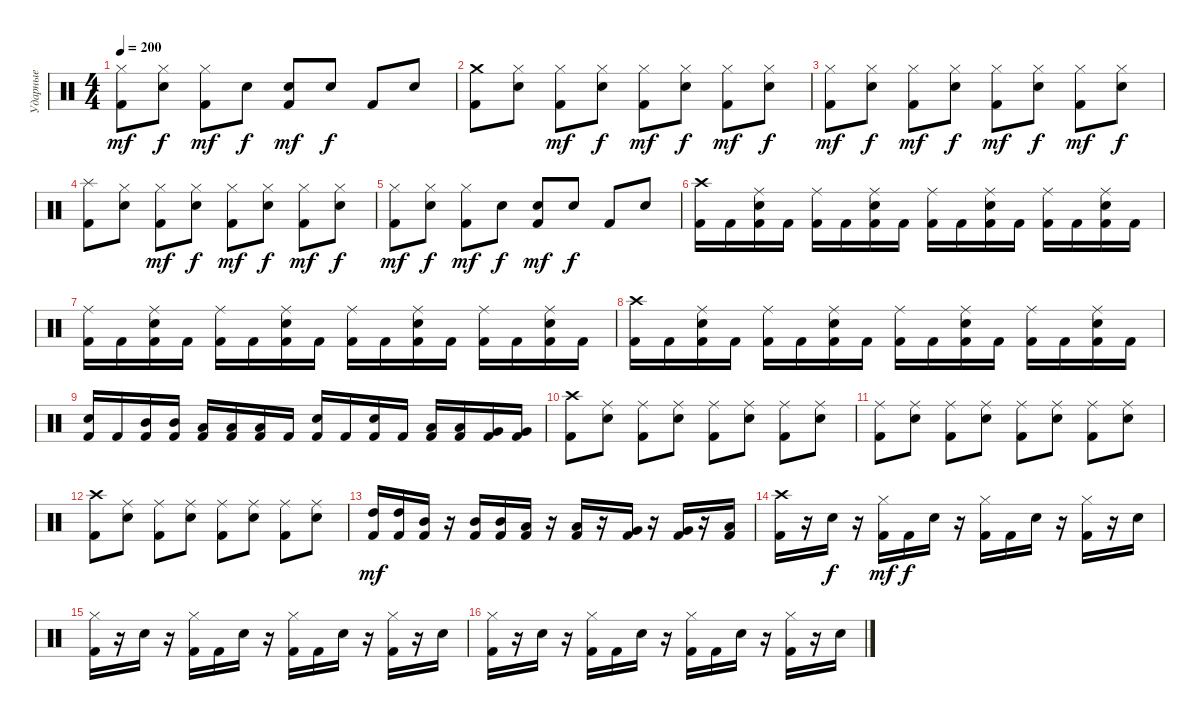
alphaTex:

\track ("Ударные" "Ударные") {instrument percussion}
\staff {score}
\articulation defaults
\ts (4 4)
\tempo 200
\clef neutral
\ks c
("Hi-Hat (closed)" "Kick (hit) 2").8{dy mf} ("Hi-Hat (closed)" "Snare (hit) 2").8{dy f} ("Hi-Hat (closed)" "Kick (hit) 2").8{dy mf} "Snare (hit) 2".8{dy f} ("Snare (hit) 2" "Kick (hit) 2").8{dy mf} "Snare (hit) 2".8{dy f} "Kick (hit) 2".8 "Snare (hit) 2".8 |
("Crash medium (hit)" "Kick (hit) 2").8 ("Hi-Hat (closed)" "Snare (hit) 2").8 ("Hi-Hat (closed)" "Kick (hit) 2").8{dy mf} ("Hi-Hat (closed)" "Snare (hit) 2").8{dy f} ("Hi-Hat (closed)" "Kick (hit) 2").8{dy mf} ("Hi-Hat (closed)" "Snare (hit) 2").8{dy f} ("Hi-Hat (closed)" "Kick (hit) 2").8{dy mf} ("Hi-Hat (closed)" "Snare (hit) 2").8{dy f} |
("Hi-Hat (closed)" "Kick (hit) 2").8{dy mf} ("Hi-Hat (closed)" "Snare (hit) 2").8{dy f} ("Hi-Hat (closed)" "Kick (hit) 2").8{dy mf} ("Hi-Hat (closed)" "Snare (hit) 2").8{dy f} ("Hi-Hat (closed)" "Kick (hit) 2").8{dy mf} ("Hi-Hat (closed)" "Snare (hit) 2").8{dy f} ("Hi-Hat (closed)" "Kick (hit) 2").8{dy mf} ("Hi-Hat (closed)" "Snare (hit) 2").8{dy f} |
("Splash (hit)" "Kick (hit) 2").8 ("Hi-Hat (closed)" "Snare (hit) 2").8 ("Hi-Hat (closed)" "Kick (hit) 2").8{dy mf} ("Hi-Hat (closed)" "Snare (hit) 2").8{dy f} ("Hi-Hat (closed)" "Kick (hit) 2").8{dy mf} ("Hi-Hat (closed)" "Snare (hit) 2").8{dy f} ("Hi-Hat (closed)" "Kick (hit) 2").8{dy mf} ("Hi-Hat (closed)" "Snare (hit) 2").8{dy f} |
("Hi-Hat (closed)" "Kick (hit) 2").8{dy mf} ("Hi-Hat (closed)" "Snare (hit) 2").8{dy f} ("Hi-Hat (closed)" "Kick (hit) 2").8{dy mf} "Snare (hit) 2".8{dy f} ("Snare (hit) 2" "Kick (hit) 2").8{dy mf} "Snare (hit) 2".8{dy f} "Kick (hit) 2".8 "Snare (hit) 2".8 |
("Crash high (hit)" "Kick (hit) 2").16 "Kick (hit) 2".16 ("Ride (middle)" "Snare (hit) 2" "Kick (hit) 2").16 "Kick (hit) 2".16 ("Ride (middle)" "Kick (hit) 2").16 "Kick (hit) 2".16 ("Ride (middle)" "Snare (hit) 2" "Kick (hit) 2").16 "Kick (hit) 2".16 ("Ride (middle)" "Kick (hit) 2").16 "Kick (hit) 2".16 ("Ride (middle)" "Snare (hit) 2" "Kick (hit) 2").16 "Kick (hit) 2".16 ("Ride (middle)" "Kick (hit) 2").16 "Kick (hit) 2".16 ("Ride (middle)" "Snare (hit) 2" "Kick (hit) 2").16 "Kick (hit) 2".16 |
("Ride (middle)" "Kick (hit) 2").16 "Kick (hit) 2".16 ("Ride (middle)" "Snare (hit) 2" "Kick (hit) 2").16 "Kick (hit) 2".16 ("Ride (middle)" "Kick (hit) 2").16 "Kick (hit) 2".16 ("Ride (middle)" "Snare (hit) 2" "Kick (hit) 2").16 "Kick (hit) 2".16 ("Ride (middle)" "Kick (hit) 2").16 "Kick (hit) 2".16 ("Ride (middle)" "Snare (hit) 2" "Kick (hit) 2").16 "Kick (hit) 2".16 ("Ride (middle)" "Kick (hit) 2").16 "Kick (hit) 2".16 ("Ride (middle)" "Snare (hit) 2" "Kick (hit) 2").16 "Kick (hit) 2".16 |
("Crash high (hit)" "Kick (hit) 2").16 "Kick (hit) 2".16 ("Ride (middle)" "Snare (hit) 2" "Kick (hit) 2").16 "Kick (hit) 2".16 ("Ride (middle)" "Kick (hit) 2").16 "Kick (hit) 2".16 ("Ride (middle)" "Snare (hit) 2" "Kick (hit) 2").16 "Kick (hit) 2".16 ("Ride (middle)" "Kick (hit) 2").16 "Kick (hit) 2".16 ("Ride (middle)" "Snare (hit) 2" "Kick (hit) 2").16 "Kick (hit) 2".16 ("Ride (middle)" "Kick (hit) 2").16 "Kick (hit) 2".16 ("Ride (middle)" "Snare (hit) 2" "Kick (hit) 2").16 "Kick (hit) 2".16 |
("Snare (hit) 2" "Kick (hit) 2").16 "Kick (hit) 2".16 ("Mid Tom (hit)" "Kick (hit) 2").16 ("Mid Tom (hit)" "Kick (hit) 2").16 ("Low Tom (hit)" "Kick (hit) 2").16 ("Low Tom (hit)" "Kick (hit) 2").16 ("Low Tom (hit)" "Kick (hit) 2").16 "Kick (hit) 2".16 ("Snare (hit) 2" "Kick (hit) 2").16 "Kick (hit) 2".16 ("Snare (hit) 2" "Kick (hit) 2").16 "Kick (hit) 2".16 ("Low Tom (hit)" "Kick (hit) 2").16 ("Low Tom (hit)" "Kick (hit) 2").16 ("Very Low Tom (hit)" "Kick (hit) 2").16 ("Very Low Tom (hit)" "Kick (hit) 2").16 |
("Crash high (hit)" "Kick (hit) 2").8 ("Ride (middle)" "Snare (hit) 2").8 ("Ride (middle)" "Kick (hit) 2").8 ("Ride (middle)" "Snare (hit) 2").8 ("Ride (middle)" "Kick (hit) 2").8 ("Ride (middle)" "Snare (hit) 2").8 ("Ride (middle)" "Kick (hit) 2").8 ("Ride (middle)" "Snare (hit) 2").8 |
("Ride (middle)" "Kick (hit) 2").8 ("Ride (middle)" "Snare (hit) 2").8 ("Ride (middle)" "Kick (hit) 2").8 ("Ride (middle)" "Snare (hit) 2").8 ("Ride (middle)" "Kick (hit) 2").8 ("Ride (middle)" "Snare (hit) 2").8 ("Ride (middle)" "Kick (hit) 2").8 ("Ride (middle)" "Snare (hit) 2").8 |
("Crash high (hit)" "Kick (hit) 2").8 ("Ride (middle)" "Snare (hit) 2").8 ("Ride (middle)" "Kick (hit) 2").8 ("Ride (middle)" "Snare (hit) 2").8 ("Ride (middle)" "Kick (hit) 2").8 ("Ride (middle)" "Snare (hit) 2").8 ("Ride (middle)" "Kick (hit) 2").8 ("Ride (middle)" "Snare (hit) 2").8 |
("High Tom (hit)" "Kick (hit) 2").16{dy mf} ("High Tom (hit)" "Kick (hit) 2").16 ("Mid Tom (hit)" "Kick (hit) 2").16 r.16 ("Mid Tom (hit)" "Kick (hit) 2").16 ("Mid Tom (hit)" "Kick (hit) 2").16 ("Low Tom (hit)" "Kick (hit) 2").16 r.16 ("Low Tom (hit)" "Kick (hit) 2").16 r.16 ("Very Low Tom (hit)" "Kick (hit) 2").16 r.16 ("Very Low Tom (hit)" "Kick (hit) 2").16 r.16 ("Low Tom (hit)" "Kick (hit) 2").16 |
("Crash high (hit)" "Kick (hit) 2").16 r.16 "Snare (hit) 2".16{dy f} r.16 ("Hi-Hat (closed)" "Kick (hit) 2").16{dy mf} "Kick (hit) 2".16{dy f} "Snare (hit) 2".16 r.16 ("Hi-Hat (closed)" "Kick (hit) 2").16 "Kick (hit) 2".16 "Snare (hit) 2".16 r.16 ("Hi-Hat (closed)" "Kick (hit) 2").16 r.16 "Snare (hit) 2".16 |
("Hi-Hat (closed)" "Kick (hit) 2").16 r.16 "Snare (hit) 2".16 r.16 ("Hi-Hat (closed)" "Kick (hit) 2").16 "Kick (hit) 2".16 "Snare (hit) 2".16 r.16 ("Hi-Hat (closed)" "Kick (hit) 2").16 "Kick (hit) 2".16 "Snare (hit) 2".16 r.16 ("Hi-Hat (closed)" "Kick (hit) 2").16 r.16 "Snare (hit) 2".16 |
("Hi-Hat (closed)" "Kick (hit) 2").16 r.16 "Snare (hit) 2".16 r.16 ("Hi-Hat (closed)" "Kick (hit) 2").16 "Kick (hit) 2".16 "Snare (hit) 2".16 r.16 ("Hi-Hat (closed)" "Kick (hit) 2").16 "Kick (hit) 2".16 "Snare (hit) 2".16 r.16 ("Hi-Hat (closed)" "Kick (hit) 2").16 r.16 "Snare (hit) 2".16
